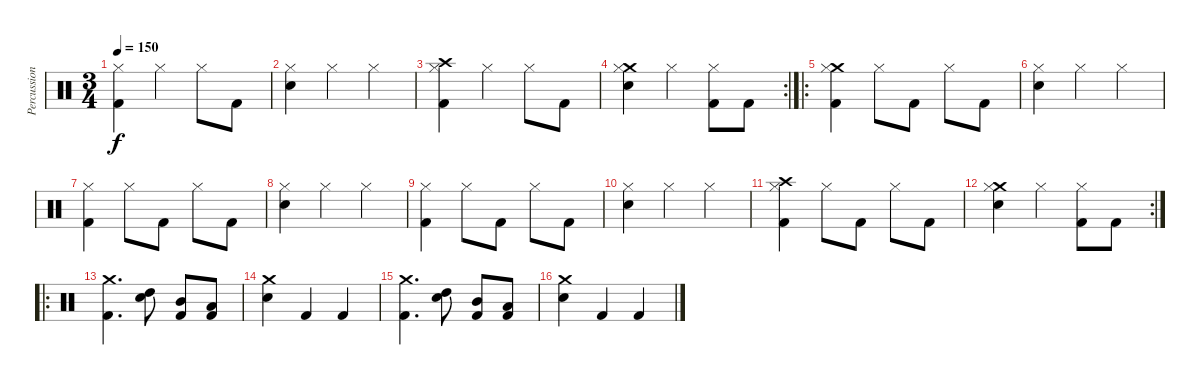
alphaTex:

\track ("Percussion" "Percussion") {instrument percussion}
\staff {score}
\articulation defaults
\ts (3 4)
\tempo 150
\clef neutral
\ks c
("Hi-Hat (closed)" "Kick (hit) 2").4{dy f} "Hi-Hat (closed)".4 "Hi-Hat (closed)".8 "Kick (hit) 2".8 |
("Hi-Hat (closed)" "Snare (hit) 2").4 "Hi-Hat (closed)".4 "Hi-Hat (closed)".4 |
("Crash high (hit)" "Hi-Hat (closed)" "Kick (hit) 2").4 "Hi-Hat (closed)".4 "Hi-Hat (closed)".8 "Kick (hit) 2".8 |
\rc 2
("Crash medium (hit)" "Hi-Hat (closed)" "Snare (hit) 2").4 "Hi-Hat (closed)".4 ("Hi-Hat (closed)" "Kick (hit) 2").8 "Kick (hit) 2".8 |
\ro
("Crash medium (hit)" "Hi-Hat (closed)" "Kick (hit) 2").4 "Hi-Hat (closed)".8 "Kick (hit) 2".8 "Hi-Hat (closed)".8 "Kick (hit) 2".8 |
("Hi-Hat (closed)" "Snare (hit) 2").4 "Hi-Hat (closed)".4 "Hi-Hat (closed)".4 |
("Hi-Hat (closed)" "Kick (hit) 2").4 "Hi-Hat (closed)".8 "Kick (hit) 2".8 "Hi-Hat (closed)".8 "Kick (hit) 2".8 |
("Hi-Hat (closed)" "Snare (hit) 2").4 "Hi-Hat (closed)".4 "Hi-Hat (closed)".4 |
("Hi-Hat (closed)" "Kick (hit) 2").4 "Hi-Hat (closed)".8 "Kick (hit) 2".8 "Hi-Hat (closed)".8 "Kick (hit) 2".8 |
("Hi-Hat (closed)" "Snare (hit) 2").4 "Hi-Hat (closed)".4 "Hi-Hat (closed)".4 |
("Crash high (hit)" "Hi-Hat (closed)" "Kick (hit) 2").4 "Hi-Hat (closed)".8 "Kick (hit) 2".8 "Hi-Hat (closed)".8 "Kick (hit) 2".8 |
\rc 2
("Crash medium (hit)" "Hi-Hat (closed)" "Snare (hit) 2").4 "Hi-Hat (closed)".4 ("Hi-Hat (closed)" "Kick (hit) 2").8 "Kick (hit) 2".8 |
\ro
("Crash medium (hit)" "Kick (hit) 2").4{d} ("High Tom (hit)" "Snare (hit) 2").8 ("Mid Tom (hit)" "Kick (hit) 2").8 ("Low Tom (hit)" "Kick (hit) 2").8 |
("Crash medium (hit)" "Snare (hit) 2").4 "Kick (hit) 2".4 "Kick (hit) 2".4 |
("Crash medium (hit)" "Kick (hit) 2").4{d} ("High Tom (hit)" "Snare (hit) 2").8 ("Mid Tom (hit)" "Kick (hit) 2").8 ("Low Tom (hit)" "Kick (hit) 2").8 |
("Crash medium (hit)" "Snare (hit) 2").4 "Kick (hit) 2".4 "Kick (hit) 2".4
